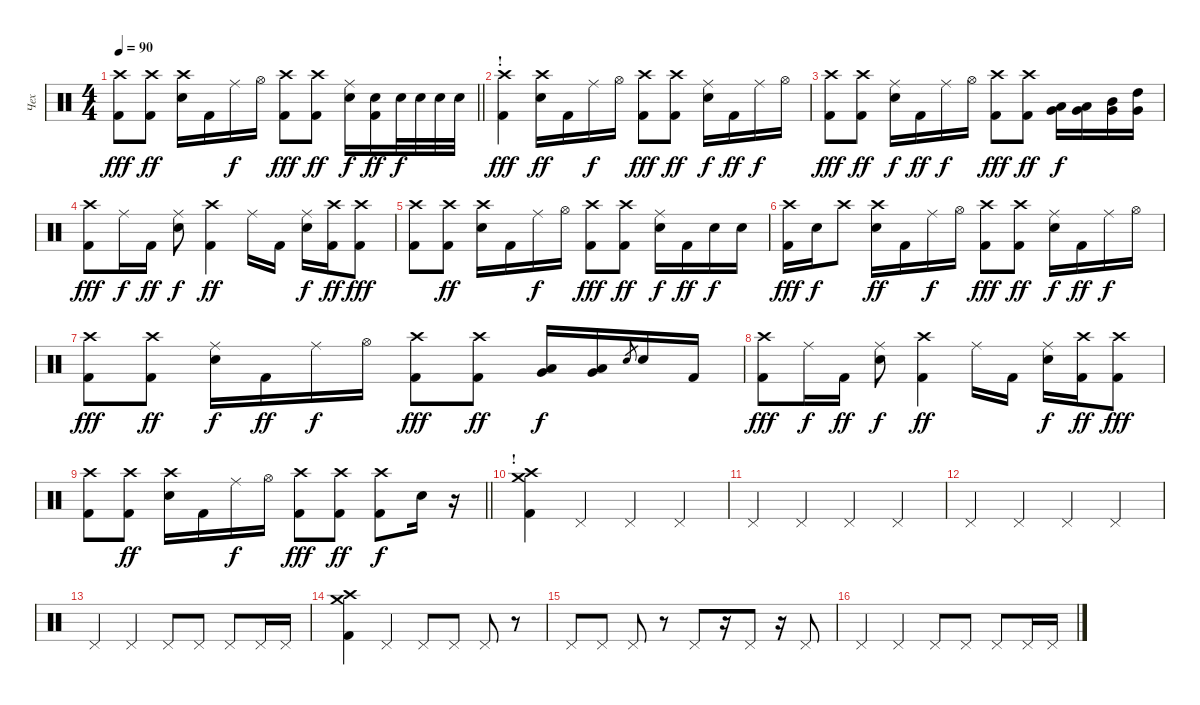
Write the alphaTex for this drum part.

\track ("Чех" "Чех") {instrument percussion}
\staff {score}
\articulation defaults
\ts (4 4)
\tempo 90
\clef neutral
\barLineRight lightlight
\ks c
("Crash high (hit)" "Kick (hit) 2").8{dy fff} ("Crash high (hit)" "Kick (hit) 2").8{dy ff} ("Crash high (hit)" "Electric Snare (hit)").16 "Kick (hit) 2".16 "Ride (middle)".16{dy f} "Hi-Hat (open)".16 ("Crash high (hit)" "Kick (hit) 2").8{dy fff} ("Crash high (hit)" "Kick (hit) 2").8{dy ff} ("Ride (middle)" "Electric Snare (hit)").16{dy f} ("Electric Snare (hit)" "Kick (hit) 2").16{dy ff} "Electric Snare (hit)".32{dy f} "Electric Snare (hit)".32 "Electric Snare (hit)".32 "Electric Snare (hit)".32 |
\section ("" "!")
("Crash high (hit)" "Kick (hit) 2").4{dy fff} ("Crash high (hit)" "Electric Snare (hit)").16{dy ff} "Kick (hit) 2".16 "Ride (middle)".16{dy f} "Hi-Hat (open)".16 ("Crash high (hit)" "Kick (hit) 2").8{dy fff} ("Crash high (hit)" "Kick (hit) 2").8{dy ff} ("Ride (middle)" "Electric Snare (hit)").16{dy f} "Kick (hit) 2".16{dy ff} "Ride (middle)".16{dy f} "Hi-Hat (open)".16 |
("Crash high (hit)" "Kick (hit) 2").8{dy fff} ("Crash high (hit)" "Kick (hit) 2").8{dy ff} ("Ride (middle)" "Electric Snare (hit)").16{dy f} "Kick (hit) 2".16{dy ff} "Ride (middle)".16{dy f} "Hi-Hat (open)".16 ("Crash high (hit)" "Kick (hit) 2").8{dy fff} ("Crash high (hit)" "Kick (hit) 2").8{dy ff} ("Low Tom (hit)" "Very Low Tom (hit)").16{dy f} ("Low Tom (hit)" "Very Low Tom (hit)").16 ("Very Low Tom (hit)" "Mid Tom (hit)").16 ("Very Low Tom (hit)" "High Tom (hit)").16 |
("Crash high (hit)" "Kick (hit) 2").8{dy fff} "Ride (middle)".16{dy f} "Kick (hit) 2".16{dy ff} ("Ride (middle)" "Electric Snare (hit)").8{dy f} ("Crash high (hit)" "Kick (hit) 2").4{dy ff} "Ride (middle)".16 "Kick (hit) 2".16 ("Ride (middle)" "Electric Snare (hit)").16{dy f} ("Crash high (hit)" "Kick (hit) 2").16{dy ff} ("Crash high (hit)" "Kick (hit) 2").8{dy fff} |
("Crash high (hit)" "Kick (hit) 2").8 ("Crash high (hit)" "Kick (hit) 2").8{dy ff} ("Crash high (hit)" "Electric Snare (hit)").16 "Kick (hit) 2".16 "Ride (middle)".16{dy f} "Hi-Hat (open)".16 ("Crash high (hit)" "Kick (hit) 2").8{dy fff} ("Crash high (hit)" "Kick (hit) 2").8{dy ff} ("Ride (middle)" "Electric Snare (hit)").16{dy f} "Kick (hit) 2".16{dy ff} "Electric Snare (hit)".16{dy f} "Electric Snare (hit)".16 |
("Crash high (hit)" "Kick (hit) 2").16{dy fff} "Electric Snare (hit)".16{dy f} "Crash high (hit)".8 ("Crash high (hit)" "Electric Snare (hit)").16{dy ff} "Kick (hit) 2".16 "Ride (middle)".16{dy f} "Hi-Hat (open)".16 ("Crash high (hit)" "Kick (hit) 2").8{dy fff} ("Crash high (hit)" "Kick (hit) 2").8{dy ff} ("Ride (middle)" "Electric Snare (hit)").16{dy f} "Kick (hit) 2".16{dy ff} "Ride (middle)".16{dy f} "Hi-Hat (open)".16 |
("Crash high (hit)" "Kick (hit) 2").8{dy fff} ("Crash high (hit)" "Kick (hit) 2").8{dy ff} ("Ride (middle)" "Electric Snare (hit)").16{dy f} "Kick (hit) 2".16{dy ff} "Ride (middle)".16{dy f} "Hi-Hat (open)".16 ("Crash high (hit)" "Kick (hit) 2").8{dy fff} ("Crash high (hit)" "Kick (hit) 2").8{dy ff} ("Low Tom (hit)" "Very Low Tom (hit)").16{dy f} ("Low Tom (hit)" "Very Low Tom (hit)").16 "Electric Snare (hit)".8{gr} "Electric Snare (hit)".16 "Kick (hit) 2".16 |
("Crash high (hit)" "Kick (hit) 2").8{dy fff} "Ride (middle)".16{dy f} "Kick (hit) 2".16{dy ff} ("Ride (middle)" "Electric Snare (hit)").8{dy f} ("Crash high (hit)" "Kick (hit) 2").4{dy ff} "Ride (middle)".16 "Kick (hit) 2".16 ("Ride (middle)" "Electric Snare (hit)").16{dy f} ("Crash high (hit)" "Kick (hit) 2").16{dy ff} ("Crash high (hit)" "Kick (hit) 2").8{dy fff} |
\barLineRight lightlight
("Crash high (hit)" "Kick (hit) 2").8 ("Crash high (hit)" "Kick (hit) 2").8{dy ff} ("Crash high (hit)" "Electric Snare (hit)").16 "Kick (hit) 2".16 "Ride (middle)".16{dy f} "Hi-Hat (open)".16 ("Crash high (hit)" "Kick (hit) 2").8{dy fff} ("Crash high (hit)" "Kick (hit) 2").8{dy ff} ("Crash high (hit)" "Kick (hit) 2").8{dy f} "Electric Snare (hit)".16 r.16 |
\section ("" "!")
("Crash high (hit)" "Crash medium (hit)" "Kick (hit) 2").4 "Pedal Hi-Hat (hit)".4 "Pedal Hi-Hat (hit)".4 "Pedal Hi-Hat (hit)".4 |
"Pedal Hi-Hat (hit)".4 "Pedal Hi-Hat (hit)".4 "Pedal Hi-Hat (hit)".4 "Pedal Hi-Hat (hit)".4 |
"Pedal Hi-Hat (hit)".4 "Pedal Hi-Hat (hit)".4 "Pedal Hi-Hat (hit)".4 "Pedal Hi-Hat (hit)".4 |
"Pedal Hi-Hat (hit)".4 "Pedal Hi-Hat (hit)".4 "Pedal Hi-Hat (hit)".8 "Pedal Hi-Hat (hit)".8 "Pedal Hi-Hat (hit)".8 "Pedal Hi-Hat (hit)".16 "Pedal Hi-Hat (hit)".16 |
("Crash high (hit)" "Crash medium (hit)" "Kick (hit) 2").4 "Pedal Hi-Hat (hit)".4 "Pedal Hi-Hat (hit)".8 "Pedal Hi-Hat (hit)".8 "Pedal Hi-Hat (hit)".8 r.8 |
"Pedal Hi-Hat (hit)".8 "Pedal Hi-Hat (hit)".8 "Pedal Hi-Hat (hit)".8 r.8 "Pedal Hi-Hat (hit)".8 r.16 "Pedal Hi-Hat (hit)".8 r.16 "Pedal Hi-Hat (hit)".8 |
"Pedal Hi-Hat (hit)".4 "Pedal Hi-Hat (hit)".4 "Pedal Hi-Hat (hit)".8 "Pedal Hi-Hat (hit)".8 "Pedal Hi-Hat (hit)".8 "Pedal Hi-Hat (hit)".16 "Pedal Hi-Hat (hit)".16
